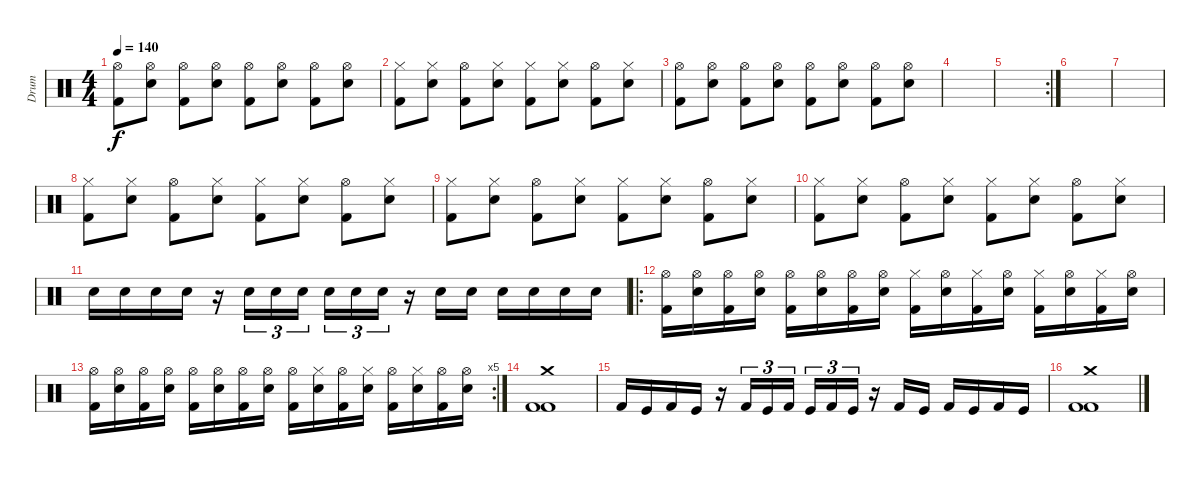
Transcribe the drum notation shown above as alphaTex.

\track ("Drum" "Drum") {instrument percussion}
\staff {score}
\articulation defaults
\ts (4 4)
\tempo 140
\clef neutral
\ks c
("Hi-Hat (open)" "Kick (hit) 2").8{dy f} ("Hi-Hat (open)" "Snare (hit) 2").8 ("Hi-Hat (open)" "Kick (hit) 2").8 ("Hi-Hat (open)" "Snare (hit) 2").8 ("Hi-Hat (open)" "Kick (hit) 2").8 ("Hi-Hat (open)" "Snare (hit) 2").8 ("Hi-Hat (open)" "Kick (hit) 2").8 ("Hi-Hat (open)" "Snare (hit) 2").8 |
("Hi-Hat (closed)" "Kick (hit) 2").8 ("Hi-Hat (closed)" "Snare (hit) 2").8 ("Hi-Hat (open)" "Kick (hit) 2").8 ("Hi-Hat (closed)" "Snare (hit) 2").8 ("Hi-Hat (closed)" "Kick (hit) 2").8 ("Hi-Hat (closed)" "Snare (hit) 2").8 ("Hi-Hat (open)" "Kick (hit) 2").8 ("Hi-Hat (closed)" "Snare (hit) 2").8 |
("Hi-Hat (open)" "Kick (hit) 2").8 ("Hi-Hat (open)" "Snare (hit) 2").8 ("Hi-Hat (open)" "Kick (hit) 2").8 ("Hi-Hat (open)" "Snare (hit) 2").8 ("Hi-Hat (open)" "Kick (hit) 2").8 ("Hi-Hat (open)" "Snare (hit) 2").8 ("Hi-Hat (open)" "Kick (hit) 2").8 ("Hi-Hat (open)" "Snare (hit) 2").8 |
|
\rc 2
|
|
|
("Hi-Hat (closed)" "Kick (hit) 2").8 ("Hi-Hat (closed)" "Snare (hit) 2").8 ("Hi-Hat (open)" "Kick (hit) 2").8 ("Hi-Hat (closed)" "Snare (hit) 2").8 ("Hi-Hat (closed)" "Kick (hit) 2").8 ("Hi-Hat (closed)" "Snare (hit) 2").8 ("Hi-Hat (open)" "Kick (hit) 2").8 ("Hi-Hat (closed)" "Snare (hit) 2").8 |
("Hi-Hat (closed)" "Kick (hit) 2").8 ("Hi-Hat (closed)" "Snare (hit) 2").8 ("Hi-Hat (open)" "Kick (hit) 2").8 ("Hi-Hat (closed)" "Snare (hit) 2").8 ("Hi-Hat (closed)" "Kick (hit) 2").8 ("Hi-Hat (closed)" "Snare (hit) 2").8 ("Hi-Hat (open)" "Kick (hit) 2").8 ("Hi-Hat (closed)" "Snare (hit) 2").8 |
("Hi-Hat (closed)" "Kick (hit) 2").8 ("Hi-Hat (closed)" "Snare (hit) 2").8 ("Hi-Hat (open)" "Kick (hit) 2").8 ("Hi-Hat (closed)" "Snare (hit) 2").8 ("Hi-Hat (closed)" "Kick (hit) 2").8 ("Hi-Hat (closed)" "Snare (hit) 2").8 ("Hi-Hat (open)" "Kick (hit) 2").8 ("Hi-Hat (closed)" "Snare (hit) 2").8 |
"Snare (hit) 2".16 "Snare (hit) 2".16 "Snare (hit) 2".16 "Snare (hit) 2".16 r.16 "Snare (hit) 2".16{tu (3 2)} "Snare (hit) 2".16{tu (3 2)} "Snare (hit) 2".16{tu (3 2)} "Snare (hit) 2".16{tu (3 2)} "Snare (hit) 2".16{tu (3 2)} "Snare (hit) 2".16{tu (3 2)} r.16 "Snare (hit) 2".16 "Snare (hit) 2".16 "Snare (hit) 2".16 "Snare (hit) 2".16 "Snare (hit) 2".16 "Snare (hit) 2".16 |
\ro
("Hi-Hat (open)" "Kick (hit) 2").16 ("Hi-Hat (open)" "Snare (hit) 2").16 ("Hi-Hat (open)" "Kick (hit) 2").16 ("Hi-Hat (open)" "Snare (hit) 2").16 ("Hi-Hat (open)" "Kick (hit) 2").16 ("Hi-Hat (open)" "Snare (hit) 2").16 ("Hi-Hat (open)" "Kick (hit) 2").16 ("Hi-Hat (open)" "Snare (hit) 2").16 ("Hi-Hat (closed)" "Kick (hit) 2").16 ("Hi-Hat (open)" "Snare (hit) 2").16 ("Hi-Hat (closed)" "Kick (hit) 2").16 ("Hi-Hat (open)" "Snare (hit) 2").16 ("Hi-Hat (closed)" "Kick (hit) 2").16 ("Hi-Hat (open)" "Snare (hit) 2").16 ("Hi-Hat (closed)" "Kick (hit) 2").16 ("Hi-Hat (open)" "Snare (hit) 2").16 |
\rc 5
("Hi-Hat (open)" "Kick (hit) 2").16 ("Hi-Hat (open)" "Snare (hit) 2").16 ("Hi-Hat (open)" "Kick (hit) 2").16 ("Hi-Hat (open)" "Snare (hit) 2").16 ("Hi-Hat (open)" "Kick (hit) 2").16 ("Hi-Hat (open)" "Snare (hit) 2").16 ("Hi-Hat (open)" "Kick (hit) 2").16 ("Hi-Hat (open)" "Snare (hit) 2").16 ("Hi-Hat (open)" "Kick (hit) 2").16 ("Hi-Hat (closed)" "Snare (hit) 2").16 ("Hi-Hat (open)" "Kick (hit) 2").16 ("Hi-Hat (closed)" "Snare (hit) 2").16 ("Hi-Hat (open)" "Kick (hit) 2").16 ("Hi-Hat (closed)" "Snare (hit) 2").16 ("Hi-Hat (open)" "Kick (hit) 2").16 ("Hi-Hat (open)" "Snare (hit) 2").16 |
("Crash medium (hit)" "Kick (hit) 2" "Kick (hit) 2").1 |
"Kick (hit) 2".16 "Kick (hit)".16 "Kick (hit) 2".16 "Kick (hit)".16 r.16 "Kick (hit) 2".16{tu (3 2)} "Kick (hit)".16{tu (3 2)} "Kick (hit) 2".16{tu (3 2)} "Kick (hit)".16{tu (3 2)} "Kick (hit) 2".16{tu (3 2)} "Kick (hit)".16{tu (3 2)} r.16 "Kick (hit) 2".16 "Kick (hit)".16 "Kick (hit) 2".16 "Kick (hit)".16 "Kick (hit) 2".16 "Kick (hit)".16 |
("Crash medium (hit)" "Kick (hit) 2" "Kick (hit) 2").1
